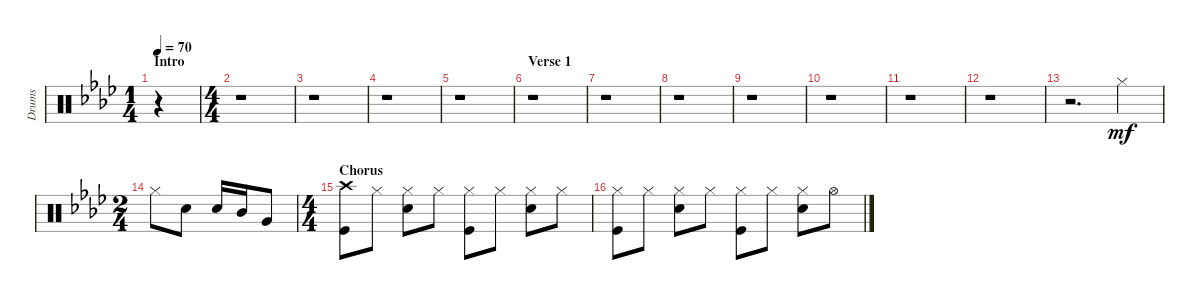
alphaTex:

\track ("Drums" "Drums") {instrument percussion}
\staff {score}
\articulation defaults
\ts (1 4)
\section ("" "Intro")
\tempo 70
\clef neutral
\ks ab
r.4{dy mf} |
\ts (4 4)
r.1 |
r.1 |
r.1 |
r.1 |
\section ("" "Verse 1")
r.1 |
r.1 |
r.1 |
r.1 |
r.1 |
r.1 |
r.1 |
r.2{d} "Hi-Hat (closed)".4 |
\ts (2 4)
"Hi-Hat (closed)".8 "Electric Snare (hit)".8 "Electric Snare (hit)".16 "Mid Tom (hit)".16 "Very Low Tom (hit)".8 |
\ts (4 4)
\section ("" "Chorus")
("Crash high (hit)" "Kick (hit)").8 "Hi-Hat (closed)".8 ("Hi-Hat (closed)" "Electric Snare (hit)").8 "Hi-Hat (closed)".8 ("Hi-Hat (closed)" "Kick (hit)").8 "Hi-Hat (closed)".8 ("Hi-Hat (closed)" "Electric Snare (hit)").8 "Hi-Hat (closed)".8 |
("Hi-Hat (closed)" "Kick (hit)").8 "Hi-Hat (closed)".8 ("Hi-Hat (closed)" "Electric Snare (hit)").8 "Hi-Hat (closed)".8 ("Hi-Hat (closed)" "Kick (hit)").8 "Hi-Hat (closed)".8 ("Hi-Hat (closed)" "Electric Snare (hit)").8 "Hi-Hat (open)".8
